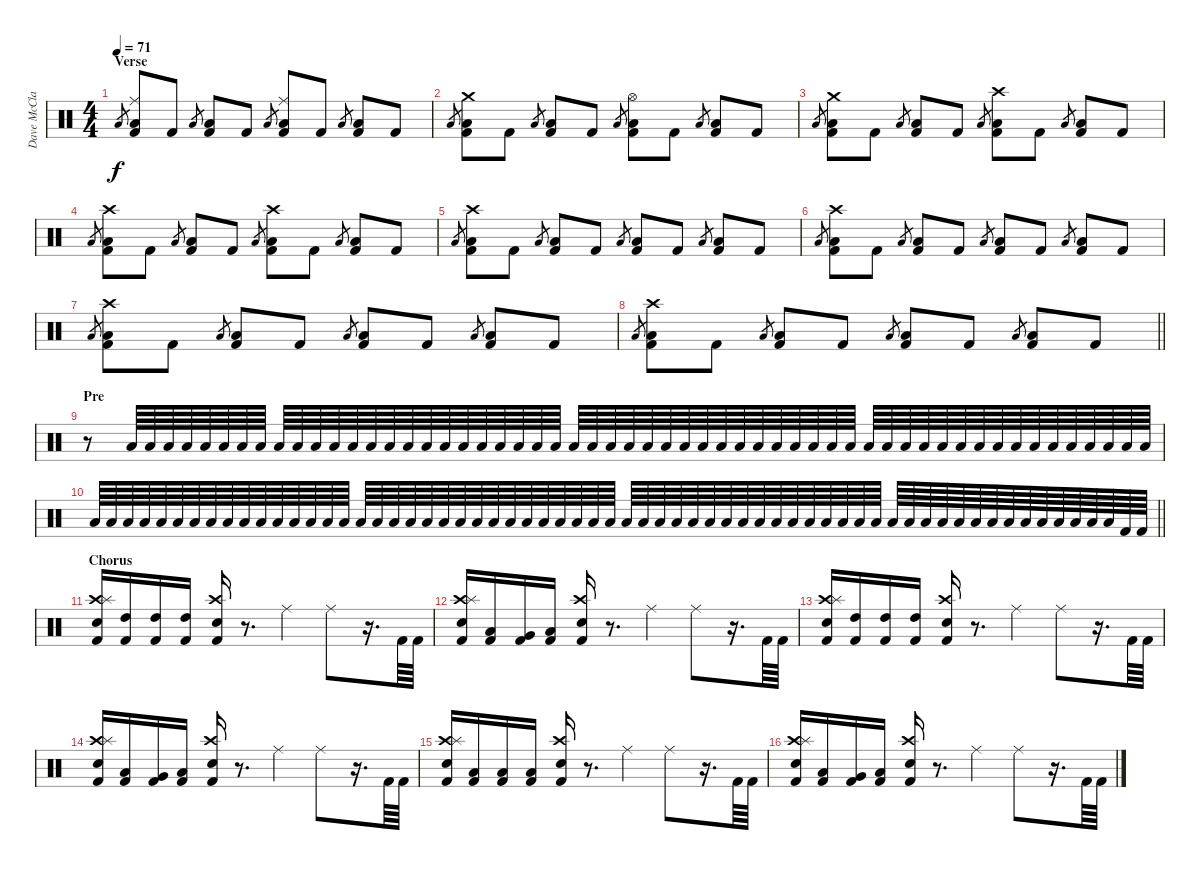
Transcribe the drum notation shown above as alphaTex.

\track ("Dave McClain - Drums" "Dave McCla") {instrument percussion}
\staff {score}
\articulation defaults
\ts (4 4)
\section ("" "Verse")
\tempo 71
\clef neutral
\ks c "Low Floor Tom (hit)".8{gr dy f}
("Ride (middle)" "Low Floor Tom (hit)" "Kick (hit) 2").8{volume 16} "Kick (hit) 2".8 "Low Floor Tom (hit)".8{gr} ("Low Floor Tom (hit)" "Kick (hit) 2").8 "Kick (hit) 2".8 "Low Floor Tom (hit)".8{gr} ("Ride (middle)" "Low Floor Tom (hit)" "Kick (hit) 2").8 "Kick (hit) 2".8 "Low Floor Tom (hit)".8{gr} ("Low Floor Tom (hit)" "Kick (hit) 2").8 "Kick (hit) 2".8 |
"Low Floor Tom (hit)".8{gr} ("Crash medium (hit)" "Low Floor Tom (hit)" "Kick (hit) 2").8 "Kick (hit) 2".8 "Low Floor Tom (hit)".8{gr} ("Low Floor Tom (hit)" "Kick (hit) 2").8 "Kick (hit) 2".8 "Low Floor Tom (hit)".8{gr} ("Hi-Hat (open)" "Low Floor Tom (hit)" "Kick (hit) 2").8 "Kick (hit) 2".8 "Low Floor Tom (hit)".8{gr} ("Low Floor Tom (hit)" "Kick (hit) 2").8 "Kick (hit) 2".8 |
"Low Floor Tom (hit)".8{gr} ("Crash medium (hit)" "Low Floor Tom (hit)" "Kick (hit) 2").8 "Kick (hit) 2".8 "Low Floor Tom (hit)".8{gr} ("Low Floor Tom (hit)" "Kick (hit) 2").8 "Kick (hit) 2".8 "Low Floor Tom (hit)".8{gr} ("Crash high (hit)" "Low Floor Tom (hit)" "Kick (hit) 2").8 "Kick (hit) 2".8 "Low Floor Tom (hit)".8{gr} ("Low Floor Tom (hit)" "Kick (hit) 2").8 "Kick (hit) 2".8 |
"Low Floor Tom (hit)".8{gr} ("Crash high (hit)" "Low Floor Tom (hit)" "Kick (hit) 2").8 "Kick (hit) 2".8 "Low Floor Tom (hit)".8{gr} ("Low Floor Tom (hit)" "Kick (hit) 2").8 "Kick (hit) 2".8 "Low Floor Tom (hit)".8{gr} ("Crash high (hit)" "Low Floor Tom (hit)" "Kick (hit) 2").8 "Kick (hit) 2".8 "Low Floor Tom (hit)".8{gr} ("Low Floor Tom (hit)" "Kick (hit) 2").8 "Kick (hit) 2".8 |
"Low Floor Tom (hit)".8{gr} ("Crash high (hit)" "Low Floor Tom (hit)" "Kick (hit) 2").8 "Kick (hit) 2".8 "Low Floor Tom (hit)".8{gr} ("Low Floor Tom (hit)" "Kick (hit) 2").8 "Kick (hit) 2".8 "Low Floor Tom (hit)".8{gr} ("Low Floor Tom (hit)" "Kick (hit) 2").8 "Kick (hit) 2".8 "Low Floor Tom (hit)".8{gr} ("Low Floor Tom (hit)" "Kick (hit) 2").8 "Kick (hit) 2".8 |
"Low Floor Tom (hit)".8{gr} ("Crash high (hit)" "Low Floor Tom (hit)" "Kick (hit) 2").8 "Kick (hit) 2".8 "Low Floor Tom (hit)".8{gr} ("Low Floor Tom (hit)" "Kick (hit) 2").8 "Kick (hit) 2".8 "Low Floor Tom (hit)".8{gr} ("Low Floor Tom (hit)" "Kick (hit) 2").8 "Kick (hit) 2".8 "Low Floor Tom (hit)".8{gr} ("Low Floor Tom (hit)" "Kick (hit) 2").8 "Kick (hit) 2".8 |
"Low Floor Tom (hit)".8{gr} ("Crash high (hit)" "Low Floor Tom (hit)" "Kick (hit) 2").8 "Kick (hit) 2".8 "Low Floor Tom (hit)".8{gr} ("Low Floor Tom (hit)" "Kick (hit) 2").8 "Kick (hit) 2".8 "Low Floor Tom (hit)".8{gr} ("Low Floor Tom (hit)" "Kick (hit) 2").8 "Kick (hit) 2".8 "Low Floor Tom (hit)".8{gr} ("Low Floor Tom (hit)" "Kick (hit) 2").8 "Kick (hit) 2".8 |
\barLineRight lightlight "Low Floor Tom (hit)".8{gr}
("Crash high (hit)" "Low Floor Tom (hit)" "Kick (hit) 2").8 "Kick (hit) 2".8 "Low Floor Tom (hit)".8{gr} ("Low Floor Tom (hit)" "Kick (hit) 2").8 "Kick (hit) 2".8 "Low Floor Tom (hit)".8{gr} ("Low Floor Tom (hit)" "Kick (hit) 2").8 "Kick (hit) 2".8 "Low Floor Tom (hit)".8{gr} ("Low Floor Tom (hit)" "Kick (hit) 2").8 "Kick (hit) 2".8 |
\section ("" "Pre")
r.8{volume 0} "Low Floor Tom (hit)".64{volume 16} "Low Floor Tom (hit)".64 "Low Floor Tom (hit)".64 "Low Floor Tom (hit)".64 "Low Floor Tom (hit)".64 "Low Floor Tom (hit)".64 "Low Floor Tom (hit)".64 "Low Floor Tom (hit)".64 "Low Floor Tom (hit)".64 "Low Floor Tom (hit)".64 "Low Floor Tom (hit)".64 "Low Floor Tom (hit)".64 "Low Floor Tom (hit)".64 "Low Floor Tom (hit)".64 "Low Floor Tom (hit)".64 "Low Floor Tom (hit)".64 "Low Floor Tom (hit)".64 "Low Floor Tom (hit)".64 "Low Floor Tom (hit)".64 "Low Floor Tom (hit)".64 "Low Floor Tom (hit)".64 "Low Floor Tom (hit)".64 "Low Floor Tom (hit)".64 "Low Floor Tom (hit)".64 "Low Floor Tom (hit)".64 "Low Floor Tom (hit)".64 "Low Floor Tom (hit)".64 "Low Floor Tom (hit)".64 "Low Floor Tom (hit)".64 "Low Floor Tom (hit)".64 "Low Floor Tom (hit)".64 "Low Floor Tom (hit)".64 "Low Floor Tom (hit)".64 "Low Floor Tom (hit)".64 "Low Floor Tom (hit)".64 "Low Floor Tom (hit)".64 "Low Floor Tom (hit)".64 "Low Floor Tom (hit)".64 "Low Floor Tom (hit)".64 "Low Floor Tom (hit)".64 "Low Floor Tom (hit)".64 "Low Floor Tom (hit)".64 "Low Floor Tom (hit)".64 "Low Floor Tom (hit)".64 "Low Floor Tom (hit)".64 "Low Floor Tom (hit)".64 "Low Floor Tom (hit)".64 "Low Floor Tom (hit)".64 "Low Floor Tom (hit)".64 "Low Floor Tom (hit)".64 "Low Floor Tom (hit)".64 "Low Floor Tom (hit)".64 "Low Floor Tom (hit)".64 "Low Floor Tom (hit)".64 "Low Floor Tom (hit)".64 "Low Floor Tom (hit)".64 |
\barLineRight lightlight "Low Floor Tom (hit)".64 "Low Floor Tom (hit)".64 "Low Floor Tom (hit)".64 "Low Floor Tom (hit)".64 "Low Floor Tom (hit)".64 "Low Floor Tom (hit)".64 "Low Floor Tom (hit)".64 "Low Floor Tom (hit)".64 "Low Floor Tom (hit)".64 "Low Floor Tom (hit)".64 "Low Floor Tom (hit)".64 "Low Floor Tom (hit)".64 "Low Floor Tom (hit)".64 "Low Floor Tom (hit)".64 "Low Floor Tom (hit)".64 "Low Floor Tom (hit)".64 "Low Floor Tom (hit)".64 "Low Floor Tom (hit)".64 "Low Floor Tom (hit)".64 "Low Floor Tom (hit)".64 "Low Floor Tom (hit)".64 "Low Floor Tom (hit)".64 "Low Floor Tom (hit)".64 "Low Floor Tom (hit)".64 "Low Floor Tom (hit)".64 "Low Floor Tom (hit)".64 "Low Floor Tom (hit)".64 "Low Floor Tom (hit)".64 "Low Floor Tom (hit)".64 "Low Floor Tom (hit)".64 "Low Floor Tom (hit)".64 "Low Floor Tom (hit)".64 "Low Floor Tom (hit)".64 "Low Floor Tom (hit)".64 "Low Floor Tom (hit)".64 "Low Floor Tom (hit)".64 "Low Floor Tom (hit)".64 "Low Floor Tom (hit)".64 "Low Floor Tom (hit)".64 "Low Floor Tom (hit)".64 "Low Floor Tom (hit)".64 "Low Floor Tom (hit)".64 "Low Floor Tom (hit)".64 "Low Floor Tom (hit)".64 "Low Floor Tom (hit)".64 "Low Floor Tom (hit)".64 "Low Floor Tom (hit)".64 "Low Floor Tom (hit)".64 "Low Floor Tom (hit)".64 "Low Floor Tom (hit)".64 "Low Floor Tom (hit)".64 "Low Floor Tom (hit)".64 "Low Floor Tom (hit)".64 "Low Floor Tom (hit)".64 "Low Floor Tom (hit)".64 "Low Floor Tom (hit)".64 "Low Floor Tom (hit)".64 "Low Floor Tom (hit)".64 "Low Floor Tom (hit)".64 "Low Floor Tom (hit)".64 "Low Floor Tom (hit)".64 "Low Floor Tom (hit)".64 "Kick (hit) 2".64 "Kick (hit) 2".64
|
\section ("" "Chorus")
("Crash high (hit)" "Splash (hit)" "Electric Snare (hit)" "Kick (hit) 2").16 ("High Tom (hit)" "Kick (hit) 2").16 ("High Tom (hit)" "Kick (hit) 2").16 ("High Tom (hit)" "Kick (hit) 2").16 ("Crash high (hit)" "Electric Snare (hit)" "Kick (hit) 2").16 r.8{d} "Ride (middle)".4 "Ride (middle)".8 r.16{d} "Kick (hit) 2".64 "Kick (hit) 2".64 |
("Crash high (hit)" "Splash (hit)" "Electric Snare (hit)" "Kick (hit) 2").16 ("Low Tom (hit)" "Kick (hit) 2").16 ("Very Low Tom (hit)" "Kick (hit) 2").16 ("Low Floor Tom (hit)" "Kick (hit) 2").16 ("Crash high (hit)" "Electric Snare (hit)" "Kick (hit) 2").16 r.8{d} "Ride (middle)".4 "Ride (middle)".8 r.16{d} "Kick (hit) 2".64 "Kick (hit) 2".64 |
("Crash high (hit)" "Splash (hit)" "Electric Snare (hit)" "Kick (hit) 2").16 ("High Tom (hit)" "Kick (hit) 2").16 ("High Tom (hit)" "Kick (hit) 2").16 ("High Tom (hit)" "Kick (hit) 2").16 ("Crash high (hit)" "Electric Snare (hit)" "Kick (hit) 2").16 r.8{d} "Ride (middle)".4 "Ride (middle)".8 r.16{d} "Kick (hit) 2".64 "Kick (hit) 2".64 |
("Crash high (hit)" "Splash (hit)" "Electric Snare (hit)" "Kick (hit) 2").16 ("Low Tom (hit)" "Kick (hit) 2").16 ("Very Low Tom (hit)" "Kick (hit) 2").16 ("Low Floor Tom (hit)" "Kick (hit) 2").16 ("Crash high (hit)" "Electric Snare (hit)" "Kick (hit) 2").16 r.8{d} "Ride (middle)".4 "Ride (middle)".8 r.16{d} "Kick (hit) 2".64 "Kick (hit) 2".64 |
("Crash high (hit)" "Splash (hit)" "Electric Snare (hit)" "Kick (hit) 2").16 ("Low Tom (hit)" "Kick (hit) 2").16 ("Low Tom (hit)" "Kick (hit) 2").16 ("Low Tom (hit)" "Kick (hit) 2").16 ("Crash high (hit)" "Electric Snare (hit)" "Kick (hit) 2").16 r.8{d} "Ride (middle)".4 "Ride (middle)".8 r.16{d} "Kick (hit) 2".64 "Kick (hit) 2".64 |
("Crash high (hit)" "Splash (hit)" "Electric Snare (hit)" "Kick (hit) 2").16 ("Low Tom (hit)" "Kick (hit) 2").16 ("Very Low Tom (hit)" "Kick (hit) 2").16 ("Low Floor Tom (hit)" "Kick (hit) 2").16 ("Crash high (hit)" "Electric Snare (hit)" "Kick (hit) 2").16 r.8{d} "Ride (middle)".4 "Ride (middle)".8 r.16{d} "Kick (hit) 2".64 "Kick (hit) 2".64
